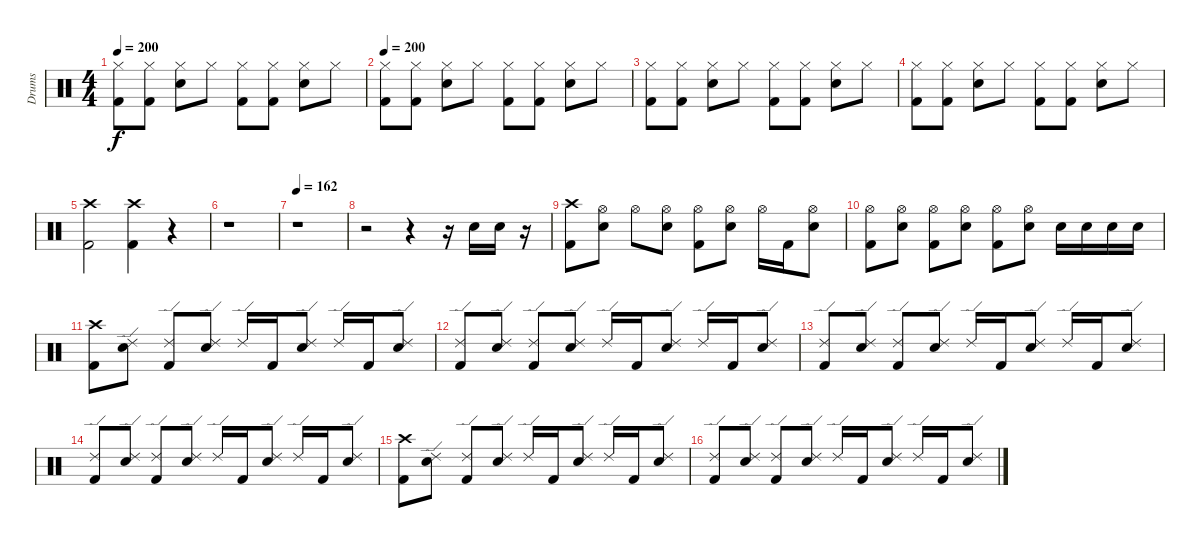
\track ("Drums" "Drums") {instrument percussion}
\staff {score}
\articulation defaults
\ts (4 4)
\tempo 200
\clef neutral
\ks c
("Kick (hit) 2" "Hi-Hat (closed)").8{dy f} ("Kick (hit) 2" "Hi-Hat (closed)").8 ("Electric Snare (hit)" "Hi-Hat (closed)").8 "Hi-Hat (closed)".8 ("Kick (hit) 2" "Hi-Hat (closed)").8 ("Kick (hit) 2" "Hi-Hat (closed)").8 ("Electric Snare (hit)" "Hi-Hat (closed)").8 "Hi-Hat (closed)".8 |
\tempo 200
("Kick (hit) 2" "Hi-Hat (closed)").8 ("Kick (hit) 2" "Hi-Hat (closed)").8 ("Electric Snare (hit)" "Hi-Hat (closed)").8 "Hi-Hat (closed)".8 ("Kick (hit) 2" "Hi-Hat (closed)").8 ("Kick (hit) 2" "Hi-Hat (closed)").8 ("Electric Snare (hit)" "Hi-Hat (closed)").8 "Hi-Hat (closed)".8 |
("Kick (hit) 2" "Hi-Hat (closed)").8 ("Kick (hit) 2" "Hi-Hat (closed)").8 ("Electric Snare (hit)" "Hi-Hat (closed)").8 "Hi-Hat (closed)".8 ("Kick (hit) 2" "Hi-Hat (closed)").8 ("Kick (hit) 2" "Hi-Hat (closed)").8 ("Electric Snare (hit)" "Hi-Hat (closed)").8 "Hi-Hat (closed)".8 |
("Kick (hit) 2" "Hi-Hat (closed)").8 ("Kick (hit) 2" "Hi-Hat (closed)").8 ("Electric Snare (hit)" "Hi-Hat (closed)").8 "Hi-Hat (closed)".8 ("Kick (hit) 2" "Hi-Hat (closed)").8 ("Kick (hit) 2" "Hi-Hat (closed)").8 ("Electric Snare (hit)" "Hi-Hat (closed)").8 "Hi-Hat (closed)".8 |
("Kick (hit) 2" "Crash high (hit)").2 ("Kick (hit) 2" "Crash high (hit)").4 r.4 |
r.1 |
\section ("" "")
\tempo 162
r.1 |
r.2 r.4 r.16 "Electric Snare (hit)".16 "Electric Snare (hit)".16 r.16 |
("Kick (hit) 2" "Crash high (hit)").8 ("Electric Snare (hit)" "Hi-Hat (open)").8 "Hi-Hat (open)".8 ("Electric Snare (hit)" "Hi-Hat (open)").8 ("Kick (hit) 2" "Hi-Hat (open)").8 ("Electric Snare (hit)" "Hi-Hat (open)").8 "Hi-Hat (open)".16 "Kick (hit) 2".16 ("Electric Snare (hit)" "Hi-Hat (open)").8 |
("Kick (hit) 2" "Hi-Hat (open)").8 ("Electric Snare (hit)" "Hi-Hat (open)").8 ("Kick (hit) 2" "Hi-Hat (open)").8 ("Electric Snare (hit)" "Hi-Hat (open)").8 ("Kick (hit) 2" "Hi-Hat (open)").8 ("Electric Snare (hit)" "Hi-Hat (open)").8 "Electric Snare (hit)".16 "Electric Snare (hit)".16 "Electric Snare (hit)".16 "Electric Snare (hit)".16 |
\section ("" "")
("Kick (hit) 2" "Crash high (hit)").8 ("Electric Snare (hit)" "Ride (edge) 2").8 ("Kick (hit) 2" "Ride (edge) 2").8 ("Electric Snare (hit)" "Ride (edge) 2").8 "Ride (edge) 2".16 "Kick (hit) 2".16 ("Electric Snare (hit)" "Ride (edge) 2").8 "Ride (edge) 2".16 "Kick (hit) 2".16 ("Electric Snare (hit)" "Ride (edge) 2").8 |
("Kick (hit) 2" "Ride (edge) 2").8 ("Electric Snare (hit)" "Ride (edge) 2").8 ("Kick (hit) 2" "Ride (edge) 2").8 ("Electric Snare (hit)" "Ride (edge) 2").8 "Ride (edge) 2".16 "Kick (hit) 2".16 ("Electric Snare (hit)" "Ride (edge) 2").8 "Ride (edge) 2".16 "Kick (hit) 2".16 ("Electric Snare (hit)" "Ride (edge) 2").8 |
("Kick (hit) 2" "Ride (edge) 2").8 ("Electric Snare (hit)" "Ride (edge) 2").8 ("Kick (hit) 2" "Ride (edge) 2").8 ("Electric Snare (hit)" "Ride (edge) 2").8 "Ride (edge) 2".16 "Kick (hit) 2".16 ("Electric Snare (hit)" "Ride (edge) 2").8 "Ride (edge) 2".16 "Kick (hit) 2".16 ("Electric Snare (hit)" "Ride (edge) 2").8 |
("Kick (hit) 2" "Ride (edge) 2").8 ("Electric Snare (hit)" "Ride (edge) 2").8 ("Kick (hit) 2" "Ride (edge) 2").8 ("Electric Snare (hit)" "Ride (edge) 2").8 "Ride (edge) 2".16 "Kick (hit) 2".16 ("Electric Snare (hit)" "Ride (edge) 2").8 "Ride (edge) 2".16 "Kick (hit) 2".16 ("Electric Snare (hit)" "Ride (edge) 2").8 |
("Kick (hit) 2" "Crash high (hit)").8 ("Electric Snare (hit)" "Ride (edge) 2").8 ("Kick (hit) 2" "Ride (edge) 2").8 ("Electric Snare (hit)" "Ride (edge) 2").8 "Ride (edge) 2".16 "Kick (hit) 2".16 ("Electric Snare (hit)" "Ride (edge) 2").8 "Ride (edge) 2".16 "Kick (hit) 2".16 ("Electric Snare (hit)" "Ride (edge) 2").8 |
("Kick (hit) 2" "Ride (edge) 2").8 ("Electric Snare (hit)" "Ride (edge) 2").8 ("Kick (hit) 2" "Ride (edge) 2").8 ("Electric Snare (hit)" "Ride (edge) 2").8 "Ride (edge) 2".16 "Kick (hit) 2".16 ("Electric Snare (hit)" "Ride (edge) 2").8 "Ride (edge) 2".16 "Kick (hit) 2".16 ("Electric Snare (hit)" "Ride (edge) 2").8
